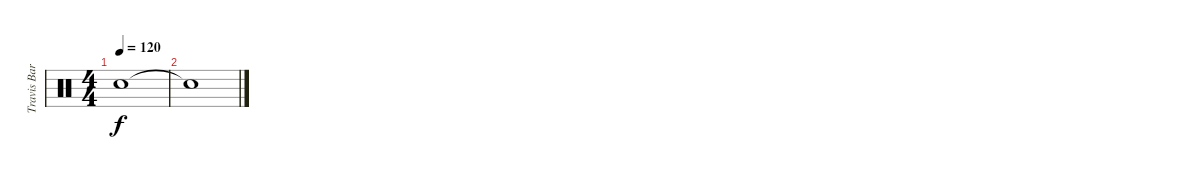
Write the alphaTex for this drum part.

\track ("Travis Barker Drums" "Travis Bar") {instrument percussion}
\staff {score}
\articulation defaults
\ts (4 4)
\tempo 120
\clef neutral
\ks c "Snare (hit)"{t}.1{dy f}
|
"Snare (hit)"{t}.1
